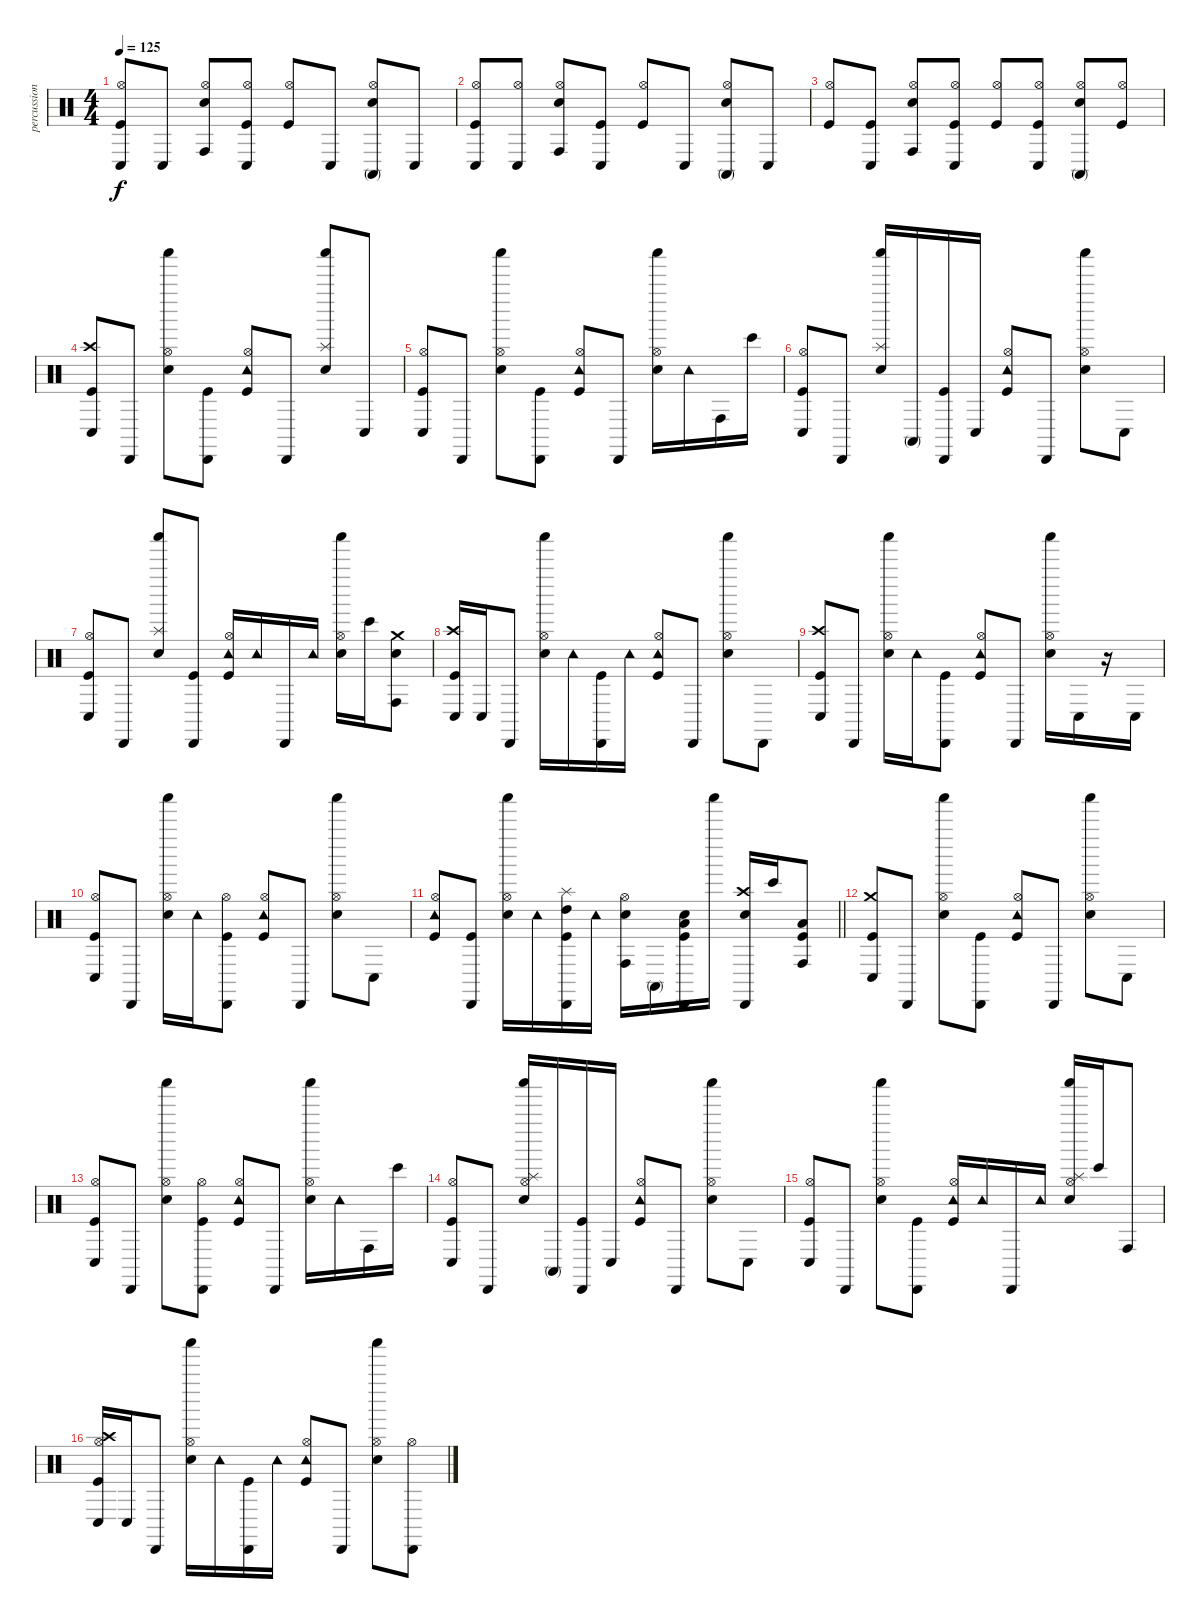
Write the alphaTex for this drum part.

\track ("percussion" "percussion") {instrument percussion}
\staff {score}
\articulation defaults
\ts (4 4)
\tempo 125
\clef neutral
\ks c
("Conga low (hit)" "Hi-Hat (open)" "Kick (hit)").8{dy f} "Conga low (hit)".8 ("Conga high (hit)" "Electric Snare (hit)" "Hi-Hat (open)").8 ("Conga low (hit)" "Hi-Hat (open)" "Kick (hit)").8 ("Hi-Hat (open)" "Kick (hit)").8 "Conga low (hit)".8 ("Conga high (mute)" "Electric Snare (hit)" "Hi-Hat (open)").8 "Conga low (hit)".8 |
("Conga low (hit)" "Hi-Hat (open)" "Kick (hit)").8 ("Conga low (hit)" "Hi-Hat (open)").8 ("Conga high (hit)" "Electric Snare (hit)" "Hi-Hat (open)").8 ("Conga low (hit)" "Kick (hit)").8 ("Hi-Hat (open)" "Kick (hit)").8 "Conga low (hit)".8 ("Conga high (mute)" "Electric Snare (hit)" "Hi-Hat (open)").8 "Conga low (hit)".8 |
("Hi-Hat (open)" "Kick (hit)").8 ("Conga low (hit)" "Kick (hit)").8 ("Conga high (hit)" "Electric Snare (hit)" "Hi-Hat (open)").8 ("Conga low (hit)" "Hi-Hat (open)" "Kick (hit)").8 ("Hi-Hat (open)" "Kick (hit)").8 ("Conga low (hit)" "Hi-Hat (open)" "Kick (hit)").8 ("Conga high (mute)" "Electric Snare (hit)" "Hi-Hat (open)").8 ("Hi-Hat (open)" "Kick (hit)").8 |
("Crash high (hit)" "Conga low (hit)" "Kick (hit)").8 "Cabasa (hit)".8 ("Shaker (hit)" "Electric Snare (hit)" "Hi-Hat (open)").8 ("Cabasa (hit)" "Kick (hit)").8 ("Tambourine (hit)" "Hi-Hat (open)" "Kick (hit)").8 "Cabasa (hit)".8 ("Splash (hit)" "Shaker (hit)" "Electric Snare (hit)").8 "Conga low (hit)".8 |
("Conga low (hit)" "Hi-Hat (open)" "Kick (hit)").8 "Cabasa (hit)".8 ("Shaker (hit)" "Electric Snare (hit)" "Hi-Hat (open)").8 ("Cabasa (hit)" "Kick (hit)").8 ("Tambourine (hit)" "Hi-Hat (open)" "Kick (hit)").8 "Cabasa (hit)".8 ("Shaker (hit)" "Electric Snare (hit)" "Hi-Hat (open)").16 "Tambourine (hit)".16 "Conga high (hit)".16 "Bongo High (hit)".16 |
("Conga low (hit)" "Hi-Hat (open)" "Kick (hit)").8 "Cabasa (hit)".8 ("Splash (hit)" "Shaker (hit)" "Electric Snare (hit)").16 "Conga high (mute)".16 ("Cabasa (hit)" "Kick (hit)").16 "Conga low (hit)".16 ("Tambourine (hit)" "Hi-Hat (open)" "Kick (hit)").8 "Cabasa (hit)".8 ("Shaker (hit)" "Electric Snare (hit)" "Hi-Hat (open)").8 "Conga low (hit)".8 |
("Conga low (hit)" "Hi-Hat (open)" "Kick (hit)").8 "Cabasa (hit)".8 ("Splash (hit)" "Shaker (hit)" "Electric Snare (hit)").8 ("Cabasa (hit)" "Kick (hit)").8 ("Tambourine (hit)" "Hi-Hat (open)" "Kick (hit)").16 "Tambourine (hit)".16 "Cabasa (hit)".16 "Tambourine (hit)".16 ("Shaker (hit)" "Electric Snare (hit)" "Hi-Hat (open)").16 "Bongo High (hit)".16 ("Crash medium (hit)" "Conga high (hit)" "Electric Snare (hit)").8 |
("Crash high (hit)" "Conga low (hit)" "Kick (hit)").16 "Conga low (hit)".16 "Cabasa (hit)".8 ("Shaker (hit)" "Electric Snare (hit)" "Hi-Hat (open)").16 "Tambourine (hit)".16 ("Cabasa (hit)" "Kick (hit)").16 "Tambourine (hit)".16 ("Tambourine (hit)" "Hi-Hat (open)" "Kick (hit)").8 "Cabasa (hit)".8 ("Shaker (hit)" "Electric Snare (hit)" "Hi-Hat (open)").8 "Cabasa (hit)".8 |
("Crash high (hit)" "Conga low (hit)" "Kick (hit)").8 "Cabasa (hit)".8 ("Shaker (hit)" "Electric Snare (hit)" "Hi-Hat (open)").16 "Tambourine (hit)".16 ("Cabasa (hit)" "Kick (hit)").8 ("Tambourine (hit)" "Hi-Hat (open)" "Kick (hit)").8 "Cabasa (hit)".8 ("Shaker (hit)" "Electric Snare (hit)" "Hi-Hat (open)").16 "Conga low (hit)".16 r.16 "Conga low (hit)".16 |
("Conga low (hit)" "Hi-Hat (open)" "Kick (hit)").8 "Cabasa (hit)".8 ("Shaker (hit)" "Electric Snare (hit)" "Hi-Hat (open)").16 "Tambourine (hit)".16 ("Cabasa (hit)" "Hi-Hat (open)" "Kick (hit)").8 ("Tambourine (hit)" "Hi-Hat (open)" "Kick (hit)").8 "Cabasa (hit)".8 ("Shaker (hit)" "Electric Snare (hit)" "Hi-Hat (open)").8 "Conga low (hit)".8 |
\barLineRight lightlight
("Tambourine (hit)" "Hi-Hat (open)" "Kick (hit)").8 ("Cabasa (hit)" "Kick (hit)").8 ("Shaker (hit)" "Electric Snare (hit)" "Hi-Hat (open)").16 "Tambourine (hit)".16 ("Splash (hit)" "Cabasa (hit)" "High Tom (hit)" "Kick (hit)").16 "Tambourine (hit)".16 ("Conga high (hit)" "Electric Snare (hit)" "Hi-Hat (open)").16 "Conga high (mute)".16 ("Cabasa (hit)" "Low Tom (hit)" "Electric Snare (hit)" "Kick (hit)").16 "Shaker (hit)".16 ("Crash high (hit)" "Cabasa (hit)" "Electric Snare (hit)").16 "Bongo High (hit)".16 ("Conga high (hit)" "Low Floor Tom (hit)" "Kick (hit)").8 |
("Crash medium (hit)" "Conga low (hit)" "Kick (hit)").8 "Cabasa (hit)".8 ("Shaker (hit)" "Electric Snare (hit)" "Hi-Hat (open)").8 ("Cabasa (hit)" "Kick (hit)").8 ("Tambourine (hit)" "Hi-Hat (open)" "Kick (hit)").8 "Cabasa (hit)".8 ("Shaker (hit)" "Electric Snare (hit)" "Hi-Hat (open)").8 "Conga low (hit)".8 |
("Conga low (hit)" "Hi-Hat (open)" "Kick (hit)").8 "Cabasa (hit)".8 ("Shaker (hit)" "Electric Snare (hit)" "Hi-Hat (open)").8 ("Cabasa (hit)" "Hi-Hat (open)" "Kick (hit)").8 ("Tambourine (hit)" "Hi-Hat (open)" "Kick (hit)").8 "Cabasa (hit)".8 ("Shaker (hit)" "Electric Snare (hit)" "Hi-Hat (open)").16 "Tambourine (hit)".16 "Conga high (hit)".16 "Bongo High (hit)".16 |
("Conga low (hit)" "Hi-Hat (open)" "Kick (hit)").8 "Cabasa (hit)".8 ("Splash (hit)" "Shaker (hit)" "Electric Snare (hit)" "Hi-Hat (open)").16 "Conga high (mute)".16 ("Cabasa (hit)" "Kick (hit)").16 "Conga low (hit)".16 ("Tambourine (hit)" "Hi-Hat (open)" "Kick (hit)").8 "Cabasa (hit)".8 ("Shaker (hit)" "Electric Snare (hit)" "Hi-Hat (open)").8 "Conga low (hit)".8 |
("Conga low (hit)" "Hi-Hat (open)" "Kick (hit)").8 "Cabasa (hit)".8 ("Shaker (hit)" "Electric Snare (hit)" "Hi-Hat (open)").8 ("Cabasa (hit)" "Kick (hit)").8 ("Tambourine (hit)" "Hi-Hat (open)" "Kick (hit)").16 "Tambourine (hit)".16 "Cabasa (hit)".16 "Tambourine (hit)".16 ("Splash (hit)" "Shaker (hit)" "Electric Snare (hit)" "Hi-Hat (open)").16 "Bongo High (hit)".16 "Conga high (hit)".8 |
("Crash high (hit)" "Conga low (hit)" "Hi-Hat (open)" "Kick (hit)").16 "Conga low (hit)".16 "Cabasa (hit)".8 ("Shaker (hit)" "Electric Snare (hit)" "Hi-Hat (open)").16 "Tambourine (hit)".16 ("Cabasa (hit)" "Kick (hit)").16 "Tambourine (hit)".16 ("Tambourine (hit)" "Hi-Hat (open)" "Kick (hit)").8 "Cabasa (hit)".8 ("Shaker (hit)" "Electric Snare (hit)" "Hi-Hat (open)").8 ("Cabasa (hit)" "Hi-Hat (open)").8
